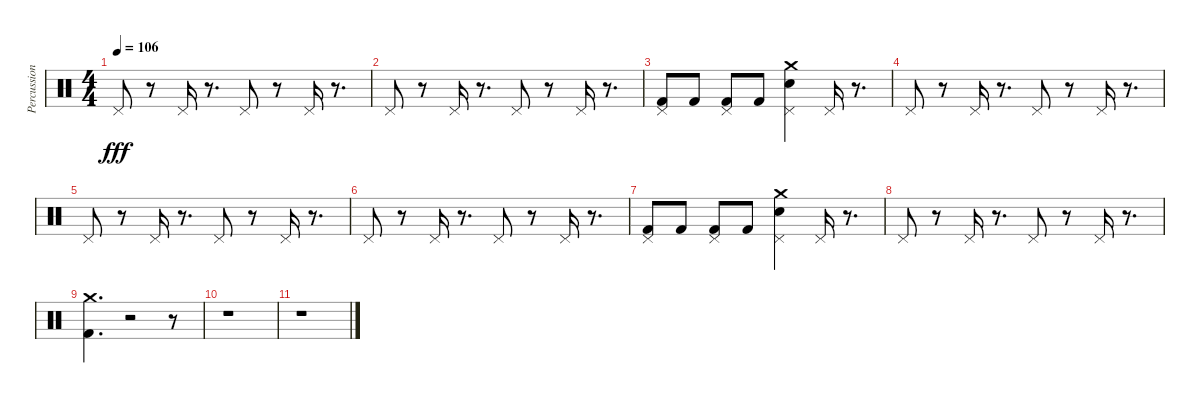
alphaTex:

\track ("Percussion" "Percussion") {instrument percussion}
\staff {score}
\articulation defaults
\ts (4 4)
\tempo 106
\clef neutral
\ks c "Pedal Hi-Hat (hit)".8{dy fff}
r.8 "Pedal Hi-Hat (hit)".16 r.8{d} "Pedal Hi-Hat (hit)".8 r.8 "Pedal Hi-Hat (hit)".16 r.8{d} |
"Pedal Hi-Hat (hit)".8 r.8 "Pedal Hi-Hat (hit)".16 r.8{d} "Pedal Hi-Hat (hit)".8 r.8 "Pedal Hi-Hat (hit)".16 r.8{d} |
("Pedal Hi-Hat (hit)" "Kick (hit) 2").8 "Kick (hit) 2".8 ("Kick (hit) 2" "Pedal Hi-Hat (hit)").8 "Kick (hit) 2".8 ("Snare (hit) 2" "Crash medium (hit)" "Pedal Hi-Hat (hit)").4 "Pedal Hi-Hat (hit)".16 r.8{d} |
"Pedal Hi-Hat (hit)".8 r.8 "Pedal Hi-Hat (hit)".16 r.8{d} "Pedal Hi-Hat (hit)".8 r.8 "Pedal Hi-Hat (hit)".16 r.8{d} |
"Pedal Hi-Hat (hit)".8 r.8 "Pedal Hi-Hat (hit)".16 r.8{d} "Pedal Hi-Hat (hit)".8 r.8 "Pedal Hi-Hat (hit)".16 r.8{d} |
"Pedal Hi-Hat (hit)".8 r.8 "Pedal Hi-Hat (hit)".16 r.8{d} "Pedal Hi-Hat (hit)".8 r.8 "Pedal Hi-Hat (hit)".16 r.8{d} |
("Pedal Hi-Hat (hit)" "Kick (hit) 2").8 "Kick (hit) 2".8 ("Kick (hit) 2" "Pedal Hi-Hat (hit)").8 "Kick (hit) 2".8 ("Snare (hit) 2" "Crash medium (hit)" "Pedal Hi-Hat (hit)").4 "Pedal Hi-Hat (hit)".16 r.8{d} |
"Pedal Hi-Hat (hit)".8 r.8 "Pedal Hi-Hat (hit)".16 r.8{d} "Pedal Hi-Hat (hit)".8 r.8 "Pedal Hi-Hat (hit)".16 r.8{d} |
("Kick (hit) 2" "Crash medium (hit)").4{d} r.2 r.8 |
r.1 |
r.1
